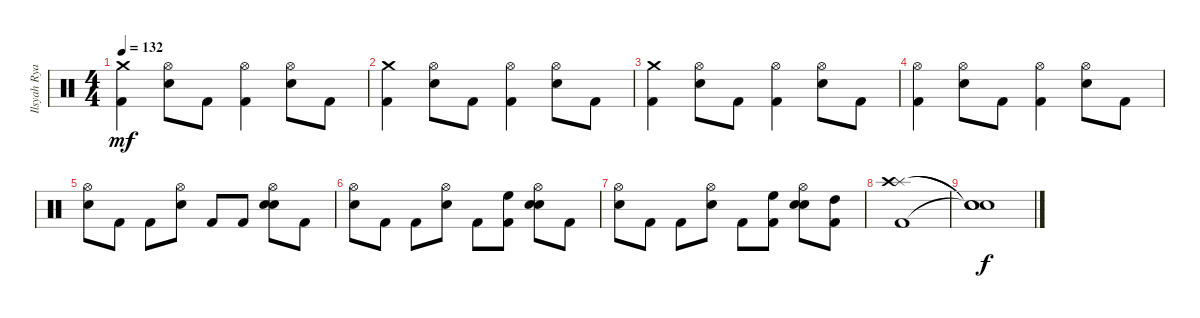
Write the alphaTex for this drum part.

\track ("Ilsyah Ryan Reza (drum)" "Ilsyah Rya") {instrument percussion}
\staff {score}
\articulation defaults
\ts (4 4)
\tempo 132
\clef neutral
\ks c
("Crash medium (hit)" "Kick (hit) 2").4{dy mf} ("Hi-Hat (open)" "Electric Snare (hit)").8 "Kick (hit) 2".8 ("Hi-Hat (open)" "Kick (hit) 2").4 ("Hi-Hat (open)" "Electric Snare (hit)").8 "Kick (hit) 2".8 |
("Crash medium (hit)" "Kick (hit) 2").4 ("Hi-Hat (open)" "Electric Snare (hit)").8 "Kick (hit) 2".8 ("Hi-Hat (open)" "Kick (hit) 2").4 ("Hi-Hat (open)" "Electric Snare (hit)").8 "Kick (hit) 2".8 |
("Crash medium (hit)" "Kick (hit) 2").4 ("Hi-Hat (open)" "Electric Snare (hit)").8 "Kick (hit) 2".8 ("Hi-Hat (open)" "Kick (hit) 2").4 ("Hi-Hat (open)" "Electric Snare (hit)").8 "Kick (hit) 2".8 |
("Hi-Hat (open)" "Kick (hit) 2").4 ("Hi-Hat (open)" "Electric Snare (hit)").8 "Kick (hit) 2".8 ("Hi-Hat (open)" "Kick (hit) 2").4 ("Hi-Hat (open)" "Electric Snare (hit)").8 "Kick (hit) 2".8 |
("Hi-Hat (open)" "Electric Snare (hit)").8 "Kick (hit) 2".8 "Kick (hit) 2".8 ("Hi-Hat (open)" "Electric Snare (hit)").8 "Kick (hit) 2".8 "Kick (hit) 2".8 ("Hi-Hat (open)" "Snare (hit) 2" "Electric Snare (hit)").8 "Kick (hit) 2".8 |
("Hi-Hat (open)" "Electric Snare (hit)").8 "Kick (hit) 2".8 "Kick (hit) 2".8 ("Hi-Hat (open)" "Electric Snare (hit)").8 "Kick (hit) 2".8 ("High Floor Tom (hit)" "Kick (hit) 2").8 ("Hi-Hat (open)" "Snare (hit) 2" "Electric Snare (hit)").8 "Kick (hit) 2".8 |
("Hi-Hat (open)" "Electric Snare (hit)").8 "Kick (hit) 2".8 "Kick (hit) 2".8 ("Hi-Hat (open)" "Electric Snare (hit)").8 "Kick (hit) 2".8 ("High Floor Tom (hit)" "Kick (hit) 2").8 ("Hi-Hat (open)" "Snare (hit) 2" "Electric Snare (hit)").8 ("High Tom (hit)" "Kick (hit) 2").8 |
("Splash (hit)" "Crash high (hit)" "Kick (hit) 2").1 |
("Snare (hit)"{t} "Snare (hit)"{t} "Snare (hit)"{t}).1{dy f}
